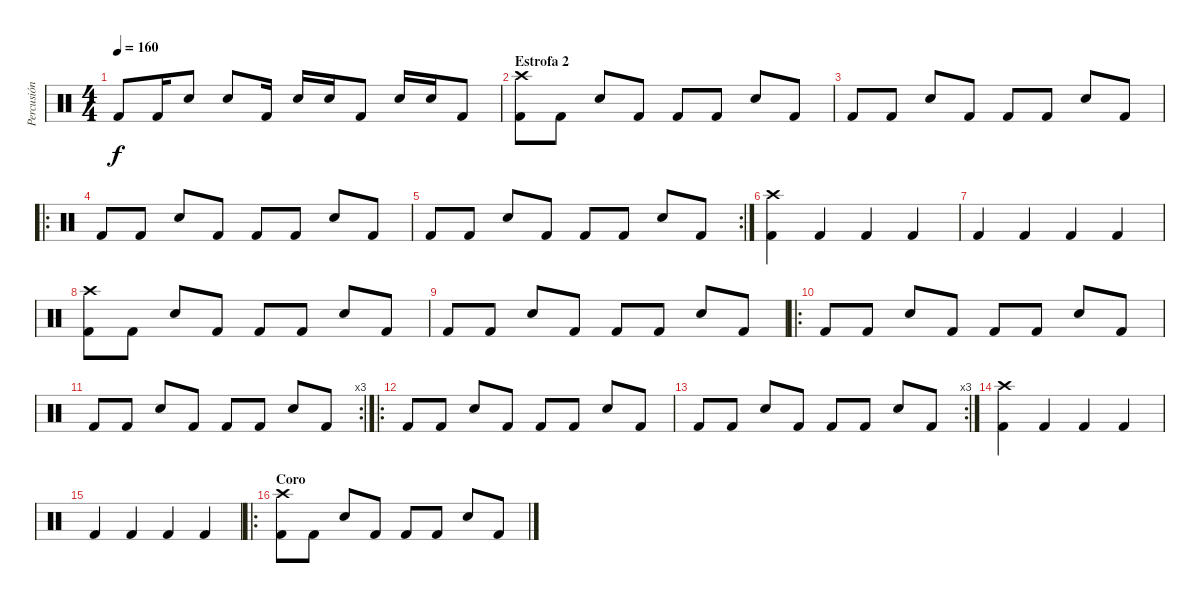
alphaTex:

\track ("Percusión" "Percusión") {instrument percussion}
\staff {score}
\articulation defaults
\ts (4 4)
\tempo 160
\clef neutral
\ks c "Kick (hit) 2".8{dy f} "Kick (hit) 2".16 "Electric Snare (hit)".8 "Electric Snare (hit)".8 "Kick (hit) 2".16 "Electric Snare (hit)".16 "Electric Snare (hit)".16 "Kick (hit) 2".8 "Electric Snare (hit)".16 "Electric Snare (hit)".16 "Kick (hit) 2".8
|
\section ("" "Estrofa 2")
("Kick (hit) 2" "Crash high (hit)").8 "Kick (hit) 2".8 "Electric Snare (hit)".8 "Kick (hit) 2".8 "Kick (hit) 2".8 "Kick (hit) 2".8 "Electric Snare (hit)".8 "Kick (hit) 2".8 |
"Kick (hit) 2".8 "Kick (hit) 2".8 "Electric Snare (hit)".8 "Kick (hit) 2".8 "Kick (hit) 2".8 "Kick (hit) 2".8 "Electric Snare (hit)".8 "Kick (hit) 2".8 |
\ro "Kick (hit) 2".8 "Kick (hit) 2".8 "Electric Snare (hit)".8 "Kick (hit) 2".8 "Kick (hit) 2".8 "Kick (hit) 2".8 "Electric Snare (hit)".8 "Kick (hit) 2".8
|
\rc 2 "Kick (hit) 2".8 "Kick (hit) 2".8 "Electric Snare (hit)".8 "Kick (hit) 2".8 "Kick (hit) 2".8 "Kick (hit) 2".8 "Electric Snare (hit)".8 "Kick (hit) 2".8
|
("Crash high (hit)" "Kick (hit) 2").4 "Kick (hit) 2".4 "Kick (hit) 2".4 "Kick (hit) 2".4 |
"Kick (hit) 2".4 "Kick (hit) 2".4 "Kick (hit) 2".4 "Kick (hit) 2".4 |
("Kick (hit) 2" "Crash high (hit)").8 "Kick (hit) 2".8 "Electric Snare (hit)".8 "Kick (hit) 2".8 "Kick (hit) 2".8 "Kick (hit) 2".8 "Electric Snare (hit)".8 "Kick (hit) 2".8 |
"Kick (hit) 2".8 "Kick (hit) 2".8 "Electric Snare (hit)".8 "Kick (hit) 2".8 "Kick (hit) 2".8 "Kick (hit) 2".8 "Electric Snare (hit)".8 "Kick (hit) 2".8 |
\ro "Kick (hit) 2".8 "Kick (hit) 2".8 "Electric Snare (hit)".8 "Kick (hit) 2".8 "Kick (hit) 2".8 "Kick (hit) 2".8 "Electric Snare (hit)".8 "Kick (hit) 2".8
|
\rc 3 "Kick (hit) 2".8 "Kick (hit) 2".8 "Electric Snare (hit)".8 "Kick (hit) 2".8 "Kick (hit) 2".8 "Kick (hit) 2".8 "Electric Snare (hit)".8 "Kick (hit) 2".8
|
\ro "Kick (hit) 2".8 "Kick (hit) 2".8 "Electric Snare (hit)".8 "Kick (hit) 2".8 "Kick (hit) 2".8 "Kick (hit) 2".8 "Electric Snare (hit)".8 "Kick (hit) 2".8
|
\rc 3 "Kick (hit) 2".8 "Kick (hit) 2".8 "Electric Snare (hit)".8 "Kick (hit) 2".8 "Kick (hit) 2".8 "Kick (hit) 2".8 "Electric Snare (hit)".8 "Kick (hit) 2".8
|
("Crash high (hit)" "Kick (hit) 2").4 "Kick (hit) 2".4 "Kick (hit) 2".4 "Kick (hit) 2".4 |
"Kick (hit) 2".4 "Kick (hit) 2".4 "Kick (hit) 2".4 "Kick (hit) 2".4 |
\ro
\section ("" "Coro")
("Kick (hit) 2" "Crash high (hit)").8 "Kick (hit) 2".8 "Electric Snare (hit)".8 "Kick (hit) 2".8 "Kick (hit) 2".8 "Kick (hit) 2".8 "Electric Snare (hit)".8 "Kick (hit) 2".8
